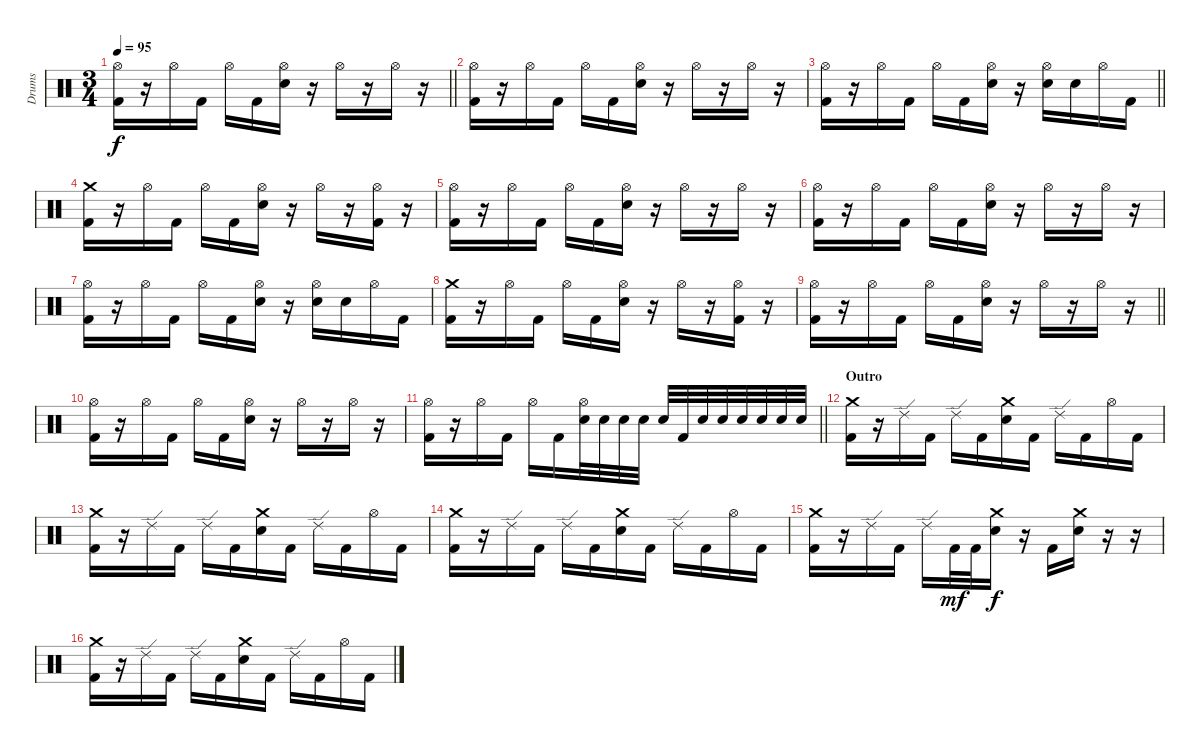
\track ("Drums" "Drums") {instrument percussion}
\staff {score}
\articulation defaults
\ts (3 4)
\tempo 95
\clef neutral
\barLineRight lightlight
\ks c
("Hi-Hat (open)" "Kick (hit) 2").16{dy f} r.16 "Hi-Hat (open)".16 "Kick (hit) 2".16 "Hi-Hat (open)".16 "Kick (hit) 2".16 ("Hi-Hat (open)" "Electric Snare (hit)").16 r.16 "Hi-Hat (open)".16 r.16 "Hi-Hat (open)".16 r.16 |
("Hi-Hat (open)" "Kick (hit) 2").16 r.16 "Hi-Hat (open)".16 "Kick (hit) 2".16 "Hi-Hat (open)".16 "Kick (hit) 2".16 ("Hi-Hat (open)" "Electric Snare (hit)").16 r.16 "Hi-Hat (open)".16 r.16 "Hi-Hat (open)".16 r.16 |
\barLineRight lightlight
("Hi-Hat (open)" "Kick (hit) 2").16 r.16 "Hi-Hat (open)".16 "Kick (hit) 2".16 "Hi-Hat (open)".16 "Kick (hit) 2".16 ("Hi-Hat (open)" "Electric Snare (hit)").16 r.16 ("Hi-Hat (open)" "Electric Snare (hit)").16 "Electric Snare (hit)".16 "Hi-Hat (open)".16 "Kick (hit) 2".16 |
("Crash medium (hit)" "Kick (hit) 2").16 r.16 "Hi-Hat (open)".16 "Kick (hit) 2".16 "Hi-Hat (open)".16 "Kick (hit) 2".16 ("Hi-Hat (open)" "Electric Snare (hit)").16 r.16 "Hi-Hat (open)".16 r.16 ("Hi-Hat (open)" "Kick (hit) 2").16 r.16 |
("Hi-Hat (open)" "Kick (hit) 2").16 r.16 "Hi-Hat (open)".16 "Kick (hit) 2".16 "Hi-Hat (open)".16 "Kick (hit) 2".16 ("Hi-Hat (open)" "Electric Snare (hit)").16 r.16 "Hi-Hat (open)".16 r.16 "Hi-Hat (open)".16 r.16 |
("Hi-Hat (open)" "Kick (hit) 2").16 r.16 "Hi-Hat (open)".16 "Kick (hit) 2".16 "Hi-Hat (open)".16 "Kick (hit) 2".16 ("Hi-Hat (open)" "Electric Snare (hit)").16 r.16 "Hi-Hat (open)".16 r.16 "Hi-Hat (open)".16 r.16 |
("Hi-Hat (open)" "Kick (hit) 2").16 r.16 "Hi-Hat (open)".16 "Kick (hit) 2".16 "Hi-Hat (open)".16 "Kick (hit) 2".16 ("Hi-Hat (open)" "Electric Snare (hit)").16 r.16 ("Hi-Hat (open)" "Electric Snare (hit)").16 "Electric Snare (hit)".16 "Hi-Hat (open)".16 "Kick (hit) 2".16 |
("Crash medium (hit)" "Kick (hit) 2").16 r.16 "Hi-Hat (open)".16 "Kick (hit) 2".16 "Hi-Hat (open)".16 "Kick (hit) 2".16 ("Hi-Hat (open)" "Electric Snare (hit)").16 r.16 "Hi-Hat (open)".16 r.16 ("Hi-Hat (open)" "Kick (hit) 2").16 r.16 |
\barLineRight lightlight
("Hi-Hat (open)" "Kick (hit) 2").16 r.16 "Hi-Hat (open)".16 "Kick (hit) 2".16 "Hi-Hat (open)".16 "Kick (hit) 2".16 ("Hi-Hat (open)" "Electric Snare (hit)").16 r.16 "Hi-Hat (open)".16 r.16 "Hi-Hat (open)".16 r.16 |
("Hi-Hat (open)" "Kick (hit) 2").16 r.16 "Hi-Hat (open)".16 "Kick (hit) 2".16 "Hi-Hat (open)".16 "Kick (hit) 2".16 ("Hi-Hat (open)" "Electric Snare (hit)").16 r.16 "Hi-Hat (open)".16 r.16 "Hi-Hat (open)".16 r.16 |
\barLineRight lightlight
("Hi-Hat (open)" "Kick (hit) 2").16 r.16 "Hi-Hat (open)".16 "Kick (hit) 2".16 "Hi-Hat (open)".16 "Kick (hit) 2".16 ("Hi-Hat (open)" "Electric Snare (hit)").32 "Electric Snare (hit)".32 "Electric Snare (hit)".32 "Electric Snare (hit)".32 "Electric Snare (hit)".32 "Kick (hit) 2".32 "Electric Snare (hit)".32 "Electric Snare (hit)".32 "Electric Snare (hit)".32 "Electric Snare (hit)".32 "Electric Snare (hit)".32 "Electric Snare (hit)".32 |
\section ("" "Outro")
("Crash medium (hit)" "Kick (hit) 2").16 r.16 "Ride (edge) 2".16 "Kick (hit) 2".16 "Ride (edge) 2".16 "Kick (hit) 2".16 ("Crash medium (hit)" "Electric Snare (hit)").16 "Kick (hit) 2".16 "Ride (edge) 2".16 "Kick (hit) 2".16 "Hi-Hat (open)".16 "Kick (hit) 2".16 |
("Crash medium (hit)" "Kick (hit) 2").16 r.16 "Ride (edge) 2".16 "Kick (hit) 2".16 "Ride (edge) 2".16 "Kick (hit) 2".16 ("Crash medium (hit)" "Electric Snare (hit)").16 "Kick (hit) 2".16 "Ride (edge) 2".16 "Kick (hit) 2".16 "Hi-Hat (open)".16 "Kick (hit) 2".16 |
("Crash medium (hit)" "Kick (hit) 2").16 r.16 "Ride (edge) 2".16 "Kick (hit) 2".16 "Ride (edge) 2".16 "Kick (hit) 2".16 ("Crash medium (hit)" "Electric Snare (hit)").16 "Kick (hit) 2".16 "Ride (edge) 2".16 "Kick (hit) 2".16 "Hi-Hat (open)".16 "Kick (hit) 2".16 |
("Crash medium (hit)" "Kick (hit) 2").16 r.16 "Ride (edge) 2".16 "Kick (hit) 2".16 "Ride (edge) 2".16 "Kick (hit) 2".32{dy mf} "Kick (hit) 2".32 ("Crash medium (hit)" "Electric Snare (hit)").16{dy f} r.16 "Kick (hit) 2".16 ("Crash medium (hit)" "Electric Snare (hit)").16 r.16 r.16 |
("Crash medium (hit)" "Kick (hit) 2").16 r.16 "Ride (edge) 2".16 "Kick (hit) 2".16 "Ride (edge) 2".16 "Kick (hit) 2".16 ("Crash medium (hit)" "Electric Snare (hit)").16 "Kick (hit) 2".16 "Ride (edge) 2".16 "Kick (hit) 2".16 "Hi-Hat (open)".16 "Kick (hit) 2".16
